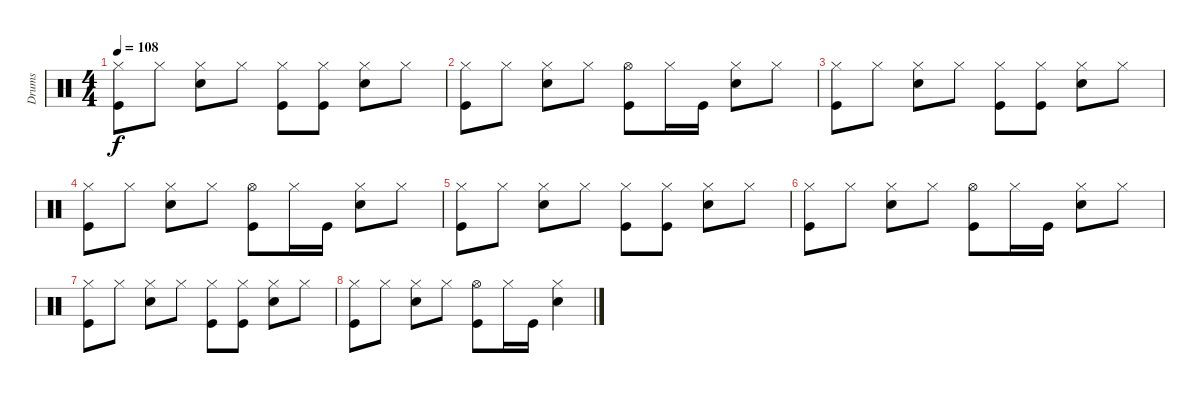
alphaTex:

\track ("Drums" "Drums") {instrument percussion}
\staff {score}
\articulation defaults
\ts (4 4)
\tempo 108
\clef neutral
\ks c
("Hi-Hat (closed)" "Kick (hit)").8{dy f} "Hi-Hat (closed)".8 ("Hi-Hat (closed)" "Snare (hit) 2").8 "Hi-Hat (closed)".8 ("Hi-Hat (closed)" "Kick (hit)").8 ("Hi-Hat (closed)" "Kick (hit)").8 ("Hi-Hat (closed)" "Snare (hit) 2").8 "Hi-Hat (closed)".8 |
("Hi-Hat (closed)" "Kick (hit)").8 "Hi-Hat (closed)".8 ("Hi-Hat (closed)" "Snare (hit) 2").8 "Hi-Hat (closed)".8 ("Hi-Hat (open)" "Kick (hit)").8 "Hi-Hat (closed)".16 "Kick (hit)".16 ("Hi-Hat (closed)" "Snare (hit) 2").8 "Hi-Hat (closed)".8 |
("Hi-Hat (closed)" "Kick (hit)").8 "Hi-Hat (closed)".8 ("Hi-Hat (closed)" "Snare (hit) 2").8 "Hi-Hat (closed)".8 ("Hi-Hat (closed)" "Kick (hit)").8 ("Hi-Hat (closed)" "Kick (hit)").8 ("Hi-Hat (closed)" "Snare (hit) 2").8 "Hi-Hat (closed)".8 |
("Hi-Hat (closed)" "Kick (hit)").8 "Hi-Hat (closed)".8 ("Hi-Hat (closed)" "Snare (hit) 2").8 "Hi-Hat (closed)".8 ("Hi-Hat (open)" "Kick (hit)").8 "Hi-Hat (closed)".16 "Kick (hit)".16 ("Hi-Hat (closed)" "Snare (hit) 2").8 "Hi-Hat (closed)".8 |
("Hi-Hat (closed)" "Kick (hit)").8 "Hi-Hat (closed)".8 ("Hi-Hat (closed)" "Snare (hit) 2").8 "Hi-Hat (closed)".8 ("Hi-Hat (closed)" "Kick (hit)").8 ("Hi-Hat (closed)" "Kick (hit)").8 ("Hi-Hat (closed)" "Snare (hit) 2").8 "Hi-Hat (closed)".8 |
("Hi-Hat (closed)" "Kick (hit)").8 "Hi-Hat (closed)".8 ("Hi-Hat (closed)" "Snare (hit) 2").8 "Hi-Hat (closed)".8 ("Hi-Hat (open)" "Kick (hit)").8 "Hi-Hat (closed)".16 "Kick (hit)".16 ("Hi-Hat (closed)" "Snare (hit) 2").8 "Hi-Hat (closed)".8 |
("Hi-Hat (closed)" "Kick (hit)").8 "Hi-Hat (closed)".8 ("Hi-Hat (closed)" "Snare (hit) 2").8 "Hi-Hat (closed)".8 ("Hi-Hat (closed)" "Kick (hit)").8 ("Hi-Hat (closed)" "Kick (hit)").8 ("Hi-Hat (closed)" "Snare (hit) 2").8 "Hi-Hat (closed)".8 |
("Hi-Hat (closed)" "Kick (hit)").8 "Hi-Hat (closed)".8 ("Hi-Hat (closed)" "Snare (hit) 2").8 "Hi-Hat (closed)".8 ("Hi-Hat (open)" "Kick (hit)").8 "Hi-Hat (closed)".16 "Kick (hit)".16 ("Hi-Hat (closed)" "Snare (hit) 2").4
